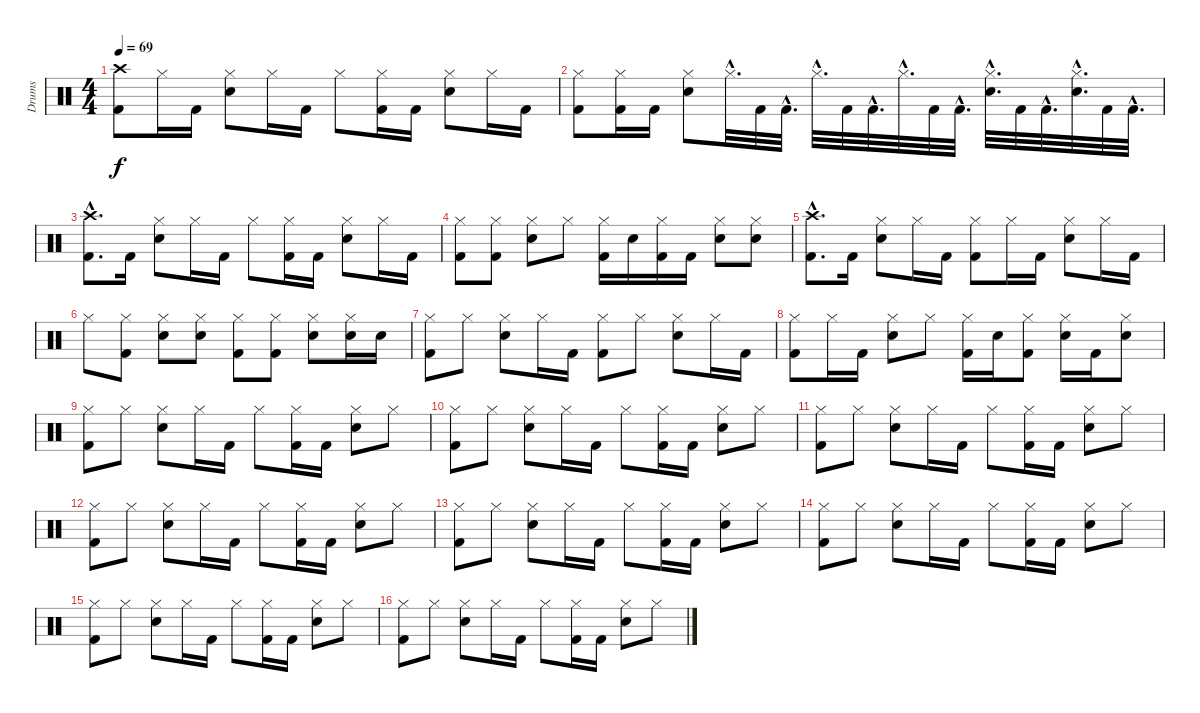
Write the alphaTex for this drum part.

\track ("Drums" "Drums") {instrument percussion}
\staff {score}
\articulation defaults
\ts (4 4)
\tempo 69
\clef neutral
\ks c
("Crash high (hit)" "Kick (hit) 2").8{dy f} "Hi-Hat (closed)".16 "Kick (hit) 2".16 ("Hi-Hat (closed)" "Snare (hit) 2").8 "Hi-Hat (closed)".16 "Kick (hit) 2".16 "Hi-Hat (closed)".8 ("Hi-Hat (closed)" "Kick (hit) 2").16 "Kick (hit) 2".16 ("Hi-Hat (closed)" "Snare (hit) 2").8 "Hi-Hat (closed)".16 "Kick (hit) 2".16 |
("Hi-Hat (closed)" "Kick (hit) 2").8 ("Hi-Hat (closed)" "Kick (hit) 2").16 "Kick (hit) 2".16 ("Hi-Hat (closed)" "Snare (hit) 2").8 "Hi-Hat (closed)"{hac}.32{d} "Kick (hit) 2".32 "Kick (hit) 2"{hac}.32{d} "Hi-Hat (closed)"{hac}.32{d} "Kick (hit) 2".32 "Kick (hit) 2"{hac}.32{d} "Hi-Hat (closed)"{hac}.32{d} "Kick (hit) 2".32 "Kick (hit) 2"{hac}.32{d} ("Snare (hit) 2"{hac} "Hi-Hat (closed)"{hac}).32{d} "Kick (hit) 2".32 "Kick (hit) 2"{hac}.32{d} ("Snare (hit) 2"{hac} "Hi-Hat (closed)"{hac}).32{d} "Kick (hit) 2".32 "Kick (hit) 2"{hac}.32{d} |
("Crash high (hit)"{hac} "Kick (hit) 2"{hac}).8{d} "Kick (hit) 2".16 ("Hi-Hat (closed)" "Snare (hit) 2").8 "Hi-Hat (closed)".16 "Kick (hit) 2".16 "Hi-Hat (closed)".8 ("Hi-Hat (closed)" "Kick (hit) 2").16 "Kick (hit) 2".16 ("Hi-Hat (closed)" "Snare (hit) 2").8 "Hi-Hat (closed)".16 "Kick (hit) 2".16 |
("Kick (hit) 2" "Hi-Hat (closed)").8 ("Kick (hit) 2" "Hi-Hat (closed)").8 ("Hi-Hat (closed)" "Snare (hit) 2").8 "Hi-Hat (closed)".8 ("Hi-Hat (closed)" "Kick (hit) 2").16 "Snare (hit) 2".16 ("Kick (hit) 2" "Hi-Hat (closed)").16 "Kick (hit) 2".16 ("Hi-Hat (closed)" "Snare (hit) 2").8 ("Hi-Hat (closed)" "Snare (hit) 2").8 |
("Crash high (hit)"{hac} "Kick (hit) 2"{hac}).8{d} "Kick (hit) 2".16 ("Snare (hit) 2" "Hi-Hat (closed)").8 "Hi-Hat (closed)".16 "Kick (hit) 2".16 ("Hi-Hat (closed)" "Kick (hit) 2").8 "Hi-Hat (closed)".16 "Kick (hit) 2".16 ("Snare (hit) 2" "Hi-Hat (closed)").8 "Hi-Hat (closed)".16 "Kick (hit) 2".16 |
"Hi-Hat (closed)".8 ("Kick (hit) 2" "Hi-Hat (closed)").8 ("Snare (hit) 2" "Hi-Hat (closed)").8 ("Snare (hit) 2" "Hi-Hat (closed)").8 ("Kick (hit) 2" "Hi-Hat (closed)").8 ("Kick (hit) 2" "Hi-Hat (closed)").8 ("Hi-Hat (closed)" "Snare (hit) 2").8 ("Hi-Hat (closed)" "Snare (hit) 2").16 "Snare (hit) 2".16 |
("Kick (hit) 2" "Hi-Hat (closed)").8 "Hi-Hat (closed)".8 ("Snare (hit) 2" "Hi-Hat (closed)").8 "Hi-Hat (closed)".16 "Kick (hit) 2".16 ("Kick (hit) 2" "Hi-Hat (closed)").8 "Hi-Hat (closed)".8 ("Snare (hit) 2" "Hi-Hat (closed)").8 "Hi-Hat (closed)".16 "Kick (hit) 2".16 |
("Hi-Hat (closed)" "Kick (hit) 2").8 "Hi-Hat (closed)".16 "Kick (hit) 2".16 ("Snare (hit) 2" "Hi-Hat (closed)").8 "Hi-Hat (closed)".8 ("Hi-Hat (closed)" "Kick (hit) 2").16 "Snare (hit) 2".16 ("Hi-Hat (closed)" "Kick (hit) 2").8 ("Snare (hit) 2" "Hi-Hat (closed)").16 "Kick (hit) 2".16 ("Snare (hit) 2" "Hi-Hat (closed)").8 |
("Hi-Hat (closed)" "Kick (hit) 2").8 "Hi-Hat (closed)".8 ("Hi-Hat (closed)" "Snare (hit) 2").8 "Hi-Hat (closed)".16 "Kick (hit) 2".16 "Hi-Hat (closed)".8 ("Hi-Hat (closed)" "Kick (hit) 2").16 "Kick (hit) 2".16 ("Hi-Hat (closed)" "Snare (hit) 2").8 "Hi-Hat (closed)".8 |
("Hi-Hat (closed)" "Kick (hit) 2").8 "Hi-Hat (closed)".8 ("Hi-Hat (closed)" "Snare (hit) 2").8 "Hi-Hat (closed)".16 "Kick (hit) 2".16 "Hi-Hat (closed)".8 ("Hi-Hat (closed)" "Kick (hit) 2").16 "Kick (hit) 2".16 ("Hi-Hat (closed)" "Snare (hit) 2").8 "Hi-Hat (closed)".8 |
("Hi-Hat (closed)" "Kick (hit) 2").8 "Hi-Hat (closed)".8 ("Hi-Hat (closed)" "Snare (hit) 2").8 "Hi-Hat (closed)".16 "Kick (hit) 2".16 "Hi-Hat (closed)".8 ("Hi-Hat (closed)" "Kick (hit) 2").16 "Kick (hit) 2".16 ("Hi-Hat (closed)" "Snare (hit) 2").8 "Hi-Hat (closed)".8 |
("Hi-Hat (closed)" "Kick (hit) 2").8 "Hi-Hat (closed)".8 ("Hi-Hat (closed)" "Snare (hit) 2").8 "Hi-Hat (closed)".16 "Kick (hit) 2".16 "Hi-Hat (closed)".8 ("Hi-Hat (closed)" "Kick (hit) 2").16 "Kick (hit) 2".16 ("Hi-Hat (closed)" "Snare (hit) 2").8 "Hi-Hat (closed)".8 |
("Hi-Hat (closed)" "Kick (hit) 2").8 "Hi-Hat (closed)".8 ("Hi-Hat (closed)" "Snare (hit) 2").8 "Hi-Hat (closed)".16 "Kick (hit) 2".16 "Hi-Hat (closed)".8 ("Hi-Hat (closed)" "Kick (hit) 2").16 "Kick (hit) 2".16 ("Hi-Hat (closed)" "Snare (hit) 2").8 "Hi-Hat (closed)".8 |
("Hi-Hat (closed)" "Kick (hit) 2").8 "Hi-Hat (closed)".8 ("Hi-Hat (closed)" "Snare (hit) 2").8 "Hi-Hat (closed)".16 "Kick (hit) 2".16 "Hi-Hat (closed)".8 ("Hi-Hat (closed)" "Kick (hit) 2").16 "Kick (hit) 2".16 ("Hi-Hat (closed)" "Snare (hit) 2").8 "Hi-Hat (closed)".8 |
("Hi-Hat (closed)" "Kick (hit) 2").8 "Hi-Hat (closed)".8 ("Hi-Hat (closed)" "Snare (hit) 2").8 "Hi-Hat (closed)".16 "Kick (hit) 2".16 "Hi-Hat (closed)".8 ("Hi-Hat (closed)" "Kick (hit) 2").16 "Kick (hit) 2".16 ("Hi-Hat (closed)" "Snare (hit) 2").8 "Hi-Hat (closed)".8 |
("Hi-Hat (closed)" "Kick (hit) 2").8 "Hi-Hat (closed)".8 ("Hi-Hat (closed)" "Snare (hit) 2").8 "Hi-Hat (closed)".16 "Kick (hit) 2".16 "Hi-Hat (closed)".8 ("Hi-Hat (closed)" "Kick (hit) 2").16 "Kick (hit) 2".16 ("Hi-Hat (closed)" "Snare (hit) 2").8 "Hi-Hat (closed)".8
